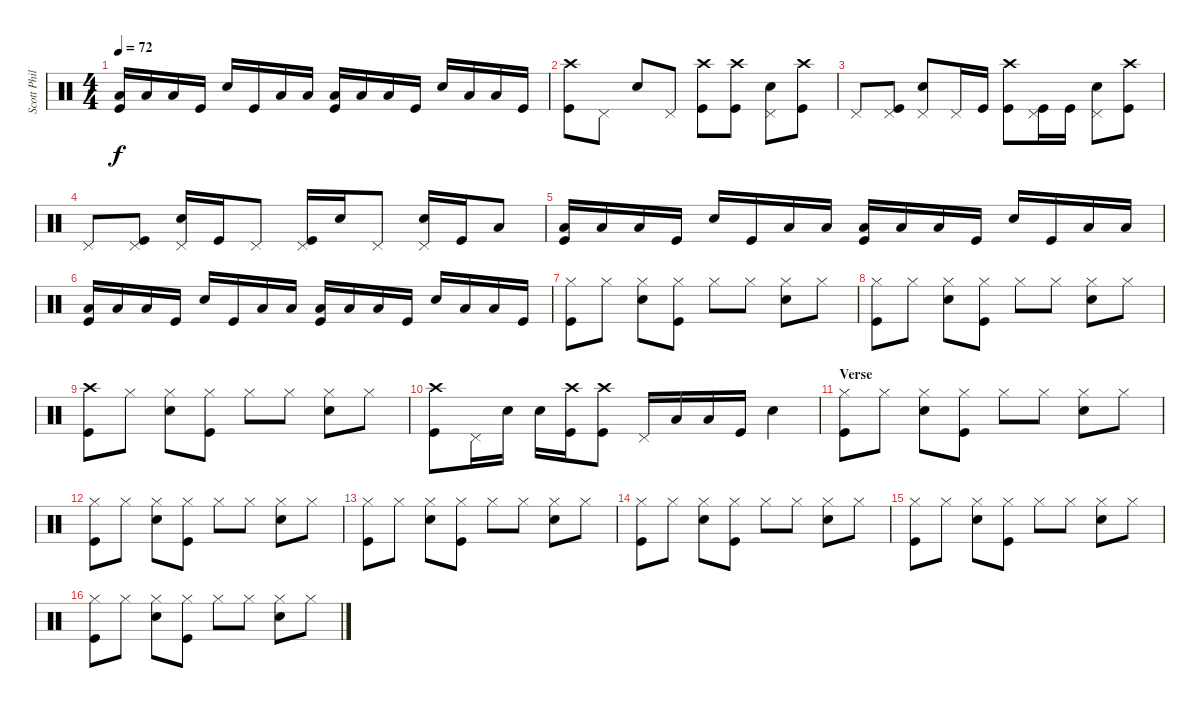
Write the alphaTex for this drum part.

\track ("Scott Phillips" "Scott Phil") {instrument percussion}
\staff {score}
\articulation defaults
\ts (4 4)
\tempo 72
\clef neutral
\ks c
("Low Tom (hit)" "Kick (hit)").16{dy f} "Low Tom (hit)".16 "Low Tom (hit)".16 "Kick (hit)".16 "Snare (hit) 2".16 "Kick (hit)".16 "Low Tom (hit)".16 "Low Tom (hit)".16 ("Low Tom (hit)" "Kick (hit)").16 "Low Tom (hit)".16 "Low Tom (hit)".16 "Kick (hit)".16 "Snare (hit) 2".16 "Low Tom (hit)".16 "Low Tom (hit)".16 "Kick (hit)".16 |
("Crash high (hit)" "Kick (hit)").8 "Pedal Hi-Hat (hit)".8 "Snare (hit) 2".8 "Pedal Hi-Hat (hit)".8 ("Crash high (hit)" "Kick (hit)").8 ("Crash high (hit)" "Kick (hit)").8 ("Pedal Hi-Hat (hit)" "Snare (hit) 2").8 ("Crash high (hit)" "Kick (hit)").8 |
"Pedal Hi-Hat (hit)".8 ("Pedal Hi-Hat (hit)" "Kick (hit)").8 ("Pedal Hi-Hat (hit)" "Snare (hit) 2").8 "Pedal Hi-Hat (hit)".16 "Kick (hit)".16 ("Crash high (hit)" "Kick (hit)").8 ("Pedal Hi-Hat (hit)" "Kick (hit)").16 "Kick (hit)".16 ("Pedal Hi-Hat (hit)" "Snare (hit) 2").8 ("Crash high (hit)" "Kick (hit)").8 |
"Pedal Hi-Hat (hit)".8 ("Pedal Hi-Hat (hit)" "Kick (hit)").8 ("Pedal Hi-Hat (hit)" "Snare (hit) 2").16 "Kick (hit)".16 "Pedal Hi-Hat (hit)".8 ("Pedal Hi-Hat (hit)" "Kick (hit)").16 "Snare (hit) 2".16 "Pedal Hi-Hat (hit)".8 ("Pedal Hi-Hat (hit)" "Snare (hit) 2").16 "Kick (hit)".16 "Low Tom (hit)".8 |
("Low Tom (hit)" "Kick (hit)").16 "Low Tom (hit)".16 "Low Tom (hit)".16 "Kick (hit)".16 "Snare (hit) 2".16 "Kick (hit)".16 "Low Tom (hit)".16 "Low Tom (hit)".16 ("Low Tom (hit)" "Kick (hit)").16 "Low Tom (hit)".16 "Low Tom (hit)".16 "Kick (hit)".16 "Snare (hit) 2".16 "Kick (hit)".16 "Low Tom (hit)".16 "Low Tom (hit)".16 |
("Low Tom (hit)" "Kick (hit)").16 "Low Tom (hit)".16 "Low Tom (hit)".16 "Kick (hit)".16 "Snare (hit) 2".16 "Kick (hit)".16 "Low Tom (hit)".16 "Low Tom (hit)".16 ("Low Tom (hit)" "Kick (hit)").16 "Low Tom (hit)".16 "Low Tom (hit)".16 "Kick (hit)".16 "Snare (hit) 2".16 "Low Tom (hit)".16 "Low Tom (hit)".16 "Kick (hit)".16 |
("Hi-Hat (closed)" "Kick (hit)").8 "Hi-Hat (closed)".8 ("Hi-Hat (closed)" "Snare (hit) 2").8 ("Hi-Hat (closed)" "Kick (hit)").8 "Hi-Hat (closed)".8 "Hi-Hat (closed)".8 ("Hi-Hat (closed)" "Snare (hit) 2").8 "Hi-Hat (closed)".8 |
("Hi-Hat (closed)" "Kick (hit)").8 "Hi-Hat (closed)".8 ("Hi-Hat (closed)" "Snare (hit) 2").8 ("Hi-Hat (closed)" "Kick (hit)").8 "Hi-Hat (closed)".8 "Hi-Hat (closed)".8 ("Hi-Hat (closed)" "Snare (hit) 2").8 "Hi-Hat (closed)".8 |
("Crash high (hit)" "Kick (hit)").8 "Hi-Hat (closed)".8 ("Hi-Hat (closed)" "Snare (hit) 2").8 ("Hi-Hat (closed)" "Kick (hit)").8 "Hi-Hat (closed)".8 "Hi-Hat (closed)".8 ("Hi-Hat (closed)" "Snare (hit) 2").8 "Hi-Hat (closed)".8 |
("Crash high (hit)" "Kick (hit)").8 "Pedal Hi-Hat (hit)".16 "Snare (hit) 2".16 "Snare (hit) 2".16 ("Crash high (hit)" "Kick (hit)").16 ("Crash high (hit)" "Kick (hit)").8 "Pedal Hi-Hat (hit)".16 "Low Tom (hit)".16 "Low Tom (hit)".16 "Kick (hit)".16 "Snare (hit) 2".4 |
\section ("" "Verse")
("Hi-Hat (closed)" "Kick (hit)").8 "Hi-Hat (closed)".8 ("Hi-Hat (closed)" "Snare (hit) 2").8 ("Hi-Hat (closed)" "Kick (hit)").8 "Hi-Hat (closed)".8 "Hi-Hat (closed)".8 ("Hi-Hat (closed)" "Snare (hit) 2").8 "Hi-Hat (closed)".8 |
("Hi-Hat (closed)" "Kick (hit)").8 "Hi-Hat (closed)".8 ("Hi-Hat (closed)" "Snare (hit) 2").8 ("Hi-Hat (closed)" "Kick (hit)").8 "Hi-Hat (closed)".8 "Hi-Hat (closed)".8 ("Hi-Hat (closed)" "Snare (hit) 2").8 "Hi-Hat (closed)".8 |
("Hi-Hat (closed)" "Kick (hit)").8 "Hi-Hat (closed)".8 ("Hi-Hat (closed)" "Snare (hit) 2").8 ("Hi-Hat (closed)" "Kick (hit)").8 "Hi-Hat (closed)".8 "Hi-Hat (closed)".8 ("Hi-Hat (closed)" "Snare (hit) 2").8 "Hi-Hat (closed)".8 |
("Hi-Hat (closed)" "Kick (hit)").8 "Hi-Hat (closed)".8 ("Hi-Hat (closed)" "Snare (hit) 2").8 ("Hi-Hat (closed)" "Kick (hit)").8 "Hi-Hat (closed)".8 "Hi-Hat (closed)".8 ("Hi-Hat (closed)" "Snare (hit) 2").8 "Hi-Hat (closed)".8 |
("Hi-Hat (closed)" "Kick (hit)").8 "Hi-Hat (closed)".8 ("Hi-Hat (closed)" "Snare (hit) 2").8 ("Hi-Hat (closed)" "Kick (hit)").8 "Hi-Hat (closed)".8 "Hi-Hat (closed)".8 ("Hi-Hat (closed)" "Snare (hit) 2").8 "Hi-Hat (closed)".8 |
("Hi-Hat (closed)" "Kick (hit)").8 "Hi-Hat (closed)".8 ("Hi-Hat (closed)" "Snare (hit) 2").8 ("Hi-Hat (closed)" "Kick (hit)").8 "Hi-Hat (closed)".8 "Hi-Hat (closed)".8 ("Hi-Hat (closed)" "Snare (hit) 2").8 "Hi-Hat (closed)".8
